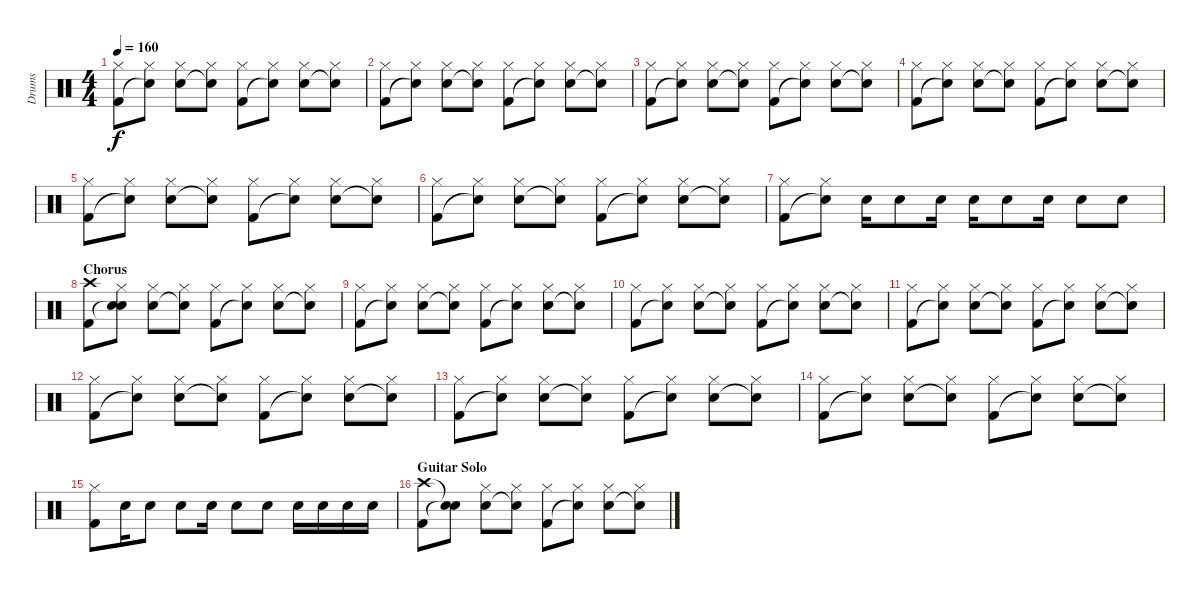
\track ("Drums" "Drums") {instrument percussion}
\staff {score}
\articulation defaults
\ts (4 4)
\tempo 160
\clef neutral
\ks c
("Kick (hit) 2" "Hi-Hat (closed)").8{dy f} ("Snare (hit)"{t} "Hi-Hat (closed)").8 ("Snare (hit) 2" "Hi-Hat (closed)").8 ("Snare (hit)"{t} "Hi-Hat (closed)").8 ("Kick (hit) 2" "Hi-Hat (closed)").8 ("Snare (hit)"{t} "Hi-Hat (closed)").8 ("Snare (hit) 2" "Hi-Hat (closed)").8 ("Snare (hit)"{t} "Hi-Hat (closed)").8 |
("Kick (hit) 2" "Hi-Hat (closed)").8 ("Snare (hit)"{t} "Hi-Hat (closed)").8 ("Snare (hit) 2" "Hi-Hat (closed)").8 ("Snare (hit)"{t} "Hi-Hat (closed)").8 ("Kick (hit) 2" "Hi-Hat (closed)").8 ("Snare (hit)"{t} "Hi-Hat (closed)").8 ("Snare (hit) 2" "Hi-Hat (closed)").8 ("Snare (hit)"{t} "Hi-Hat (closed)").8 |
("Kick (hit) 2" "Hi-Hat (closed)").8 ("Snare (hit)"{t} "Hi-Hat (closed)").8 ("Snare (hit) 2" "Hi-Hat (closed)").8 ("Snare (hit)"{t} "Hi-Hat (closed)").8 ("Kick (hit) 2" "Hi-Hat (closed)").8 ("Snare (hit)"{t} "Hi-Hat (closed)").8 ("Snare (hit) 2" "Hi-Hat (closed)").8 ("Snare (hit)"{t} "Hi-Hat (closed)").8 |
("Kick (hit) 2" "Hi-Hat (closed)").8 ("Snare (hit)"{t} "Hi-Hat (closed)").8 ("Snare (hit) 2" "Hi-Hat (closed)").8 ("Snare (hit)"{t} "Hi-Hat (closed)").8 ("Kick (hit) 2" "Hi-Hat (closed)").8 ("Snare (hit)"{t} "Hi-Hat (closed)").8 ("Snare (hit) 2" "Hi-Hat (closed)").8 ("Snare (hit)"{t} "Hi-Hat (closed)").8 |
("Kick (hit) 2" "Hi-Hat (closed)").8 ("Snare (hit)"{t} "Hi-Hat (closed)").8 ("Snare (hit) 2" "Hi-Hat (closed)").8 ("Snare (hit)"{t} "Hi-Hat (closed)").8 ("Kick (hit) 2" "Hi-Hat (closed)").8 ("Snare (hit)"{t} "Hi-Hat (closed)").8 ("Snare (hit) 2" "Hi-Hat (closed)").8 ("Snare (hit)"{t} "Hi-Hat (closed)").8 |
("Kick (hit) 2" "Hi-Hat (closed)").8 ("Snare (hit)"{t} "Hi-Hat (closed)").8 ("Snare (hit) 2" "Hi-Hat (closed)").8 ("Snare (hit)"{t} "Hi-Hat (closed)").8 ("Kick (hit) 2" "Hi-Hat (closed)").8 ("Snare (hit)"{t} "Hi-Hat (closed)").8 ("Snare (hit) 2" "Hi-Hat (closed)").8 ("Snare (hit)"{t} "Hi-Hat (closed)").8 |
("Kick (hit) 2" "Hi-Hat (closed)").8 ("Snare (hit)"{t} "Hi-Hat (closed)").8 "Snare (hit) 2".16 "Snare (hit) 2".8 "Snare (hit) 2".16 "Snare (hit) 2".16 "Snare (hit) 2".8 "Snare (hit) 2".16 "Snare (hit) 2".8 "Snare (hit) 2".8 |
\section ("" "Chorus")
("Kick (hit) 2" "Crash high (hit)").8 ("Snare (hit)"{t} "Hi-Hat (closed)" "Snare (hit)").8 ("Snare (hit) 2" "Hi-Hat (closed)").8 ("Snare (hit)"{t} "Hi-Hat (closed)").8 ("Kick (hit) 2" "Hi-Hat (closed)").8 ("Snare (hit)"{t} "Hi-Hat (closed)").8 ("Snare (hit) 2" "Hi-Hat (closed)").8 ("Snare (hit)"{t} "Hi-Hat (closed)").8 |
("Kick (hit) 2" "Hi-Hat (closed)").8 ("Snare (hit)"{t} "Hi-Hat (closed)").8 ("Snare (hit) 2" "Hi-Hat (closed)").8 ("Snare (hit)"{t} "Hi-Hat (closed)").8 ("Kick (hit) 2" "Hi-Hat (closed)").8 ("Snare (hit)"{t} "Hi-Hat (closed)").8 ("Snare (hit) 2" "Hi-Hat (closed)").8 ("Snare (hit)"{t} "Hi-Hat (closed)").8 |
("Kick (hit) 2" "Hi-Hat (closed)").8 ("Snare (hit)"{t} "Hi-Hat (closed)").8 ("Snare (hit) 2" "Hi-Hat (closed)").8 ("Snare (hit)"{t} "Hi-Hat (closed)").8 ("Kick (hit) 2" "Hi-Hat (closed)").8 ("Snare (hit)"{t} "Hi-Hat (closed)").8 ("Snare (hit) 2" "Hi-Hat (closed)").8 ("Snare (hit)"{t} "Hi-Hat (closed)").8 |
("Kick (hit) 2" "Hi-Hat (closed)").8 ("Snare (hit)"{t} "Hi-Hat (closed)").8 ("Snare (hit) 2" "Hi-Hat (closed)").8 ("Snare (hit)"{t} "Hi-Hat (closed)").8 ("Kick (hit) 2" "Hi-Hat (closed)").8 ("Snare (hit)"{t} "Hi-Hat (closed)").8 ("Snare (hit) 2" "Hi-Hat (closed)").8 ("Snare (hit)"{t} "Hi-Hat (closed)").8 |
("Kick (hit) 2" "Hi-Hat (closed)").8 ("Snare (hit)"{t} "Hi-Hat (closed)").8 ("Snare (hit) 2" "Hi-Hat (closed)").8 ("Snare (hit)"{t} "Hi-Hat (closed)").8 ("Kick (hit) 2" "Hi-Hat (closed)").8 ("Snare (hit)"{t} "Hi-Hat (closed)").8 ("Snare (hit) 2" "Hi-Hat (closed)").8 ("Snare (hit)"{t} "Hi-Hat (closed)").8 |
("Kick (hit) 2" "Hi-Hat (closed)").8 ("Snare (hit)"{t} "Hi-Hat (closed)").8 ("Snare (hit) 2" "Hi-Hat (closed)").8 ("Snare (hit)"{t} "Hi-Hat (closed)").8 ("Kick (hit) 2" "Hi-Hat (closed)").8 ("Snare (hit)"{t} "Hi-Hat (closed)").8 ("Snare (hit) 2" "Hi-Hat (closed)").8 ("Snare (hit)"{t} "Hi-Hat (closed)").8 |
("Kick (hit) 2" "Hi-Hat (closed)").8 ("Snare (hit)"{t} "Hi-Hat (closed)").8 ("Snare (hit) 2" "Hi-Hat (closed)").8 ("Snare (hit)"{t} "Hi-Hat (closed)").8 ("Kick (hit) 2" "Hi-Hat (closed)").8 ("Snare (hit)"{t} "Hi-Hat (closed)").8 ("Snare (hit) 2" "Hi-Hat (closed)").8 ("Snare (hit)"{t} "Hi-Hat (closed)").8 |
("Kick (hit) 2" "Hi-Hat (closed)").8 "Snare (hit) 2".16 "Snare (hit) 2".8 "Snare (hit) 2".8 "Snare (hit) 2".16 "Snare (hit) 2".8 "Snare (hit) 2".8 "Snare (hit) 2".16 "Snare (hit) 2".16 "Snare (hit) 2".16 "Snare (hit) 2".16 |
\section ("" "Guitar Solo")
("Kick (hit) 2" "Crash high (hit)").8 ("Snare (hit)"{t} "Snare (hit)"{t}).8 ("Snare (hit) 2" "Hi-Hat (closed)").8 ("Snare (hit)"{t} "Hi-Hat (closed)").8 ("Kick (hit) 2" "Hi-Hat (closed)").8 ("Snare (hit)"{t} "Hi-Hat (closed)").8 ("Snare (hit) 2" "Hi-Hat (closed)").8 ("Snare (hit)"{t} "Hi-Hat (closed)").8
